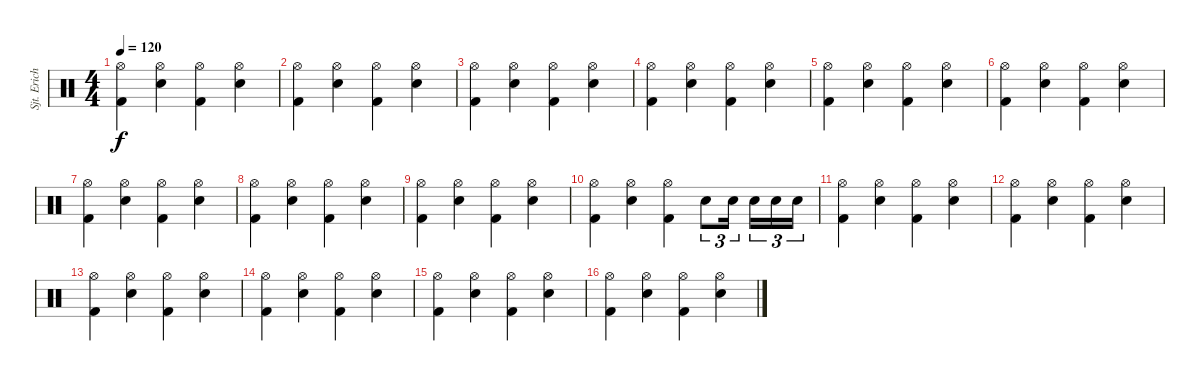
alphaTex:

\track ("Sjt. Erichsen" "Sjt. Erich") {instrument percussion}
\staff {score}
\articulation defaults
\ts (4 4)
\tempo 120
\clef neutral
\ks c
("Hi-Hat (open)" "Kick (hit) 2").4{dy f} ("Hi-Hat (open)" "Electric Snare (hit)").4 ("Hi-Hat (open)" "Kick (hit) 2").4 ("Hi-Hat (open)" "Electric Snare (hit)").4 |
("Hi-Hat (open)" "Kick (hit) 2").4 ("Hi-Hat (open)" "Electric Snare (hit)").4 ("Hi-Hat (open)" "Kick (hit) 2").4 ("Hi-Hat (open)" "Electric Snare (hit)").4 |
("Hi-Hat (open)" "Kick (hit) 2").4 ("Hi-Hat (open)" "Electric Snare (hit)").4 ("Hi-Hat (open)" "Kick (hit) 2").4 ("Hi-Hat (open)" "Electric Snare (hit)").4 |
("Hi-Hat (open)" "Kick (hit) 2").4 ("Hi-Hat (open)" "Electric Snare (hit)").4 ("Hi-Hat (open)" "Kick (hit) 2").4 ("Hi-Hat (open)" "Electric Snare (hit)").4 |
("Hi-Hat (open)" "Kick (hit) 2").4 ("Hi-Hat (open)" "Electric Snare (hit)").4 ("Hi-Hat (open)" "Kick (hit) 2").4 ("Hi-Hat (open)" "Electric Snare (hit)").4 |
("Hi-Hat (open)" "Kick (hit) 2").4 ("Hi-Hat (open)" "Electric Snare (hit)").4 ("Hi-Hat (open)" "Kick (hit) 2").4 ("Hi-Hat (open)" "Electric Snare (hit)").4 |
("Hi-Hat (open)" "Kick (hit) 2").4 ("Hi-Hat (open)" "Electric Snare (hit)").4 ("Hi-Hat (open)" "Kick (hit) 2").4 ("Hi-Hat (open)" "Electric Snare (hit)").4 |
("Hi-Hat (open)" "Kick (hit) 2").4 ("Hi-Hat (open)" "Electric Snare (hit)").4 ("Hi-Hat (open)" "Kick (hit) 2").4 ("Hi-Hat (open)" "Electric Snare (hit)").4 |
("Hi-Hat (open)" "Kick (hit) 2").4 ("Hi-Hat (open)" "Electric Snare (hit)").4 ("Hi-Hat (open)" "Kick (hit) 2").4 ("Hi-Hat (open)" "Electric Snare (hit)").4 |
("Hi-Hat (open)" "Kick (hit) 2").4 ("Hi-Hat (open)" "Electric Snare (hit)").4 ("Hi-Hat (open)" "Kick (hit) 2").4 "Electric Snare (hit)".8{tu (3 2)} "Electric Snare (hit)".16{tu (3 2)} "Electric Snare (hit)".16{tu (3 2)} "Electric Snare (hit)".16{tu (3 2)} "Electric Snare (hit)".16{tu (3 2)} |
("Hi-Hat (open)" "Kick (hit) 2").4 ("Hi-Hat (open)" "Electric Snare (hit)").4 ("Hi-Hat (open)" "Kick (hit) 2").4 ("Hi-Hat (open)" "Electric Snare (hit)").4 |
("Hi-Hat (open)" "Kick (hit) 2").4 ("Hi-Hat (open)" "Electric Snare (hit)").4 ("Hi-Hat (open)" "Kick (hit) 2").4 ("Hi-Hat (open)" "Electric Snare (hit)").4 |
("Hi-Hat (open)" "Kick (hit) 2").4 ("Hi-Hat (open)" "Electric Snare (hit)").4 ("Hi-Hat (open)" "Kick (hit) 2").4 ("Hi-Hat (open)" "Electric Snare (hit)").4 |
("Hi-Hat (open)" "Kick (hit) 2").4 ("Hi-Hat (open)" "Electric Snare (hit)").4 ("Hi-Hat (open)" "Kick (hit) 2").4 ("Hi-Hat (open)" "Electric Snare (hit)").4 |
("Hi-Hat (open)" "Kick (hit) 2").4 ("Hi-Hat (open)" "Electric Snare (hit)").4 ("Hi-Hat (open)" "Kick (hit) 2").4 ("Hi-Hat (open)" "Electric Snare (hit)").4 |
("Hi-Hat (open)" "Kick (hit) 2").4 ("Hi-Hat (open)" "Electric Snare (hit)").4 ("Hi-Hat (open)" "Kick (hit) 2").4 ("Hi-Hat (open)" "Electric Snare (hit)").4
